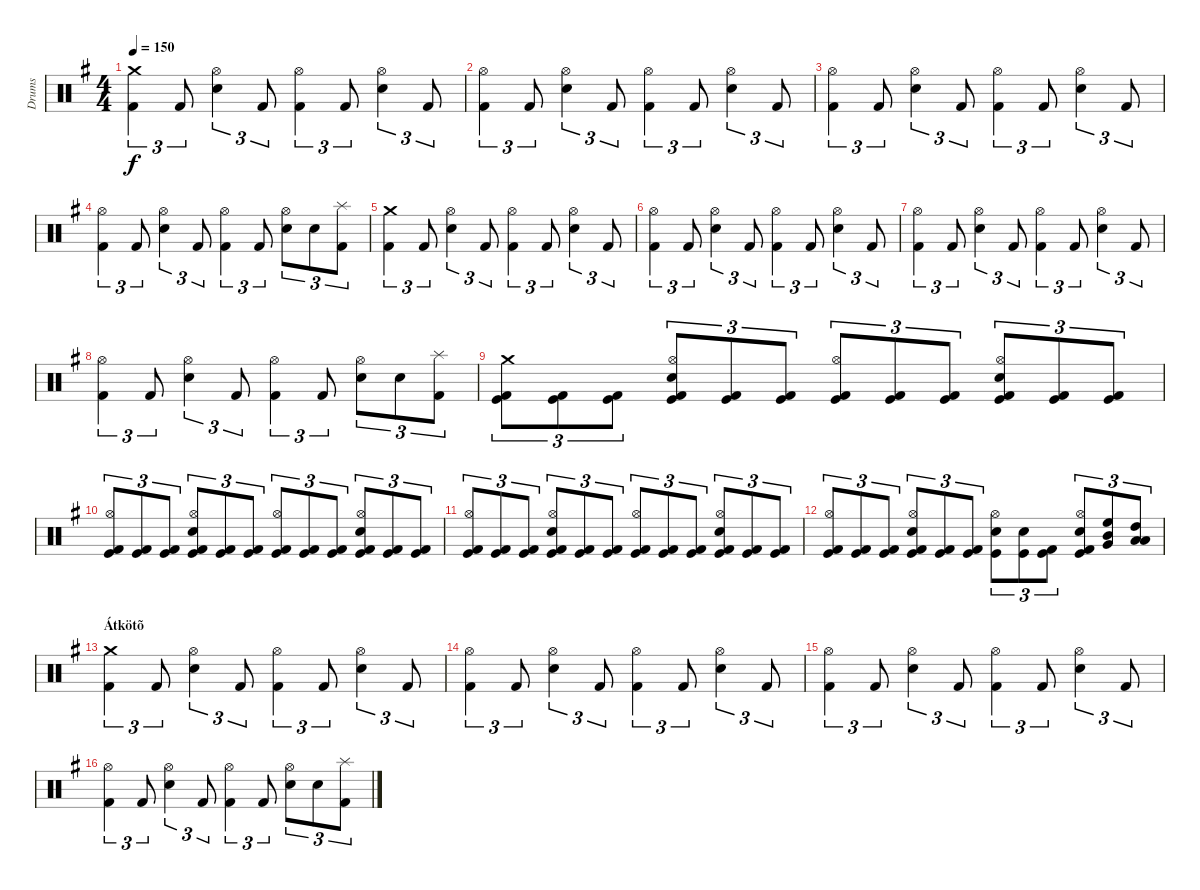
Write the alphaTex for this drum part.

\track ("Drums" "Drums") {instrument percussion}
\staff {score}
\articulation defaults
\ts (4 4)
\tempo 150
\clef neutral
\ks eminor
("Crash medium (hit)" "Kick (hit) 2").4{tu (3 2) dy f} "Kick (hit) 2".8{tu (3 2)} ("Hi-Hat (open)" "Snare (hit) 2").4{tu (3 2)} "Kick (hit) 2".8{tu (3 2)} ("Hi-Hat (open)" "Kick (hit) 2").4{tu (3 2)} "Kick (hit) 2".8{tu (3 2)} ("Hi-Hat (open)" "Snare (hit) 2").4{tu (3 2)} "Kick (hit) 2".8{tu (3 2)} |
("Hi-Hat (open)" "Kick (hit) 2").4{tu (3 2)} "Kick (hit) 2".8{tu (3 2)} ("Hi-Hat (open)" "Snare (hit) 2").4{tu (3 2)} "Kick (hit) 2".8{tu (3 2)} ("Hi-Hat (open)" "Kick (hit) 2").4{tu (3 2)} "Kick (hit) 2".8{tu (3 2)} ("Hi-Hat (open)" "Snare (hit) 2").4{tu (3 2)} "Kick (hit) 2".8{tu (3 2)} |
("Hi-Hat (open)" "Kick (hit) 2").4{tu (3 2)} "Kick (hit) 2".8{tu (3 2)} ("Hi-Hat (open)" "Snare (hit) 2").4{tu (3 2)} "Kick (hit) 2".8{tu (3 2)} ("Hi-Hat (open)" "Kick (hit) 2").4{tu (3 2)} "Kick (hit) 2".8{tu (3 2)} ("Hi-Hat (open)" "Snare (hit) 2").4{tu (3 2)} "Kick (hit) 2".8{tu (3 2)} |
("Hi-Hat (open)" "Kick (hit) 2").4{tu (3 2)} "Kick (hit) 2".8{tu (3 2)} ("Hi-Hat (open)" "Snare (hit) 2").4{tu (3 2)} "Kick (hit) 2".8{tu (3 2)} ("Hi-Hat (open)" "Kick (hit) 2").4{tu (3 2)} "Kick (hit) 2".8{tu (3 2)} ("Hi-Hat (open)" "Snare (hit) 2").8{tu (3 2)} "Snare (hit) 2".8{tu (3 2)} ("Splash (hit)" "Kick (hit) 2").8{tu (3 2)} |
("Crash medium (hit)" "Kick (hit) 2").4{tu (3 2)} "Kick (hit) 2".8{tu (3 2)} ("Hi-Hat (open)" "Snare (hit) 2").4{tu (3 2)} "Kick (hit) 2".8{tu (3 2)} ("Hi-Hat (open)" "Kick (hit) 2").4{tu (3 2)} "Kick (hit) 2".8{tu (3 2)} ("Hi-Hat (open)" "Snare (hit) 2").4{tu (3 2)} "Kick (hit) 2".8{tu (3 2)} |
("Hi-Hat (open)" "Kick (hit) 2").4{tu (3 2)} "Kick (hit) 2".8{tu (3 2)} ("Hi-Hat (open)" "Snare (hit) 2").4{tu (3 2)} "Kick (hit) 2".8{tu (3 2)} ("Hi-Hat (open)" "Kick (hit) 2").4{tu (3 2)} "Kick (hit) 2".8{tu (3 2)} ("Hi-Hat (open)" "Snare (hit) 2").4{tu (3 2)} "Kick (hit) 2".8{tu (3 2)} |
("Hi-Hat (open)" "Kick (hit) 2").4{tu (3 2)} "Kick (hit) 2".8{tu (3 2)} ("Hi-Hat (open)" "Snare (hit) 2").4{tu (3 2)} "Kick (hit) 2".8{tu (3 2)} ("Hi-Hat (open)" "Kick (hit) 2").4{tu (3 2)} "Kick (hit) 2".8{tu (3 2)} ("Hi-Hat (open)" "Snare (hit) 2").4{tu (3 2)} "Kick (hit) 2".8{tu (3 2)} |
("Hi-Hat (open)" "Kick (hit) 2").4{tu (3 2)} "Kick (hit) 2".8{tu (3 2)} ("Hi-Hat (open)" "Snare (hit) 2").4{tu (3 2)} "Kick (hit) 2".8{tu (3 2)} ("Hi-Hat (open)" "Kick (hit) 2").4{tu (3 2)} "Kick (hit) 2".8{tu (3 2)} ("Hi-Hat (open)" "Snare (hit) 2").8{tu (3 2)} "Snare (hit) 2".8{tu (3 2)} ("Splash (hit)" "Kick (hit) 2").8{tu (3 2)} |
("Crash medium (hit)" "Kick (hit)" "Kick (hit) 2").8{tu (3 2)} ("Kick (hit)" "Kick (hit) 2").8{tu (3 2)} ("Kick (hit)" "Kick (hit) 2").8{tu (3 2)} ("Hi-Hat (open)" "Snare (hit) 2" "Kick (hit)" "Kick (hit) 2").8{tu (3 2)} ("Kick (hit)" "Kick (hit) 2").8{tu (3 2)} ("Kick (hit)" "Kick (hit) 2").8{tu (3 2)} ("Hi-Hat (open)" "Kick (hit)" "Kick (hit) 2").8{tu (3 2)} ("Kick (hit)" "Kick (hit) 2").8{tu (3 2)} ("Kick (hit)" "Kick (hit) 2").8{tu (3 2)} ("Hi-Hat (open)" "Snare (hit) 2" "Kick (hit)" "Kick (hit) 2").8{tu (3 2)} ("Kick (hit)" "Kick (hit) 2").8{tu (3 2)} ("Kick (hit)" "Kick (hit) 2").8{tu (3 2)} |
("Hi-Hat (open)" "Kick (hit)" "Kick (hit) 2").8{tu (3 2)} ("Kick (hit)" "Kick (hit) 2").8{tu (3 2)} ("Kick (hit)" "Kick (hit) 2").8{tu (3 2)} ("Hi-Hat (open)" "Snare (hit) 2" "Kick (hit)" "Kick (hit) 2").8{tu (3 2)} ("Kick (hit)" "Kick (hit) 2").8{tu (3 2)} ("Kick (hit)" "Kick (hit) 2").8{tu (3 2)} ("Hi-Hat (open)" "Kick (hit)" "Kick (hit) 2").8{tu (3 2)} ("Kick (hit)" "Kick (hit) 2").8{tu (3 2)} ("Kick (hit)" "Kick (hit) 2").8{tu (3 2)} ("Hi-Hat (open)" "Snare (hit) 2" "Kick (hit)" "Kick (hit) 2").8{tu (3 2)} ("Kick (hit)" "Kick (hit) 2").8{tu (3 2)} ("Kick (hit)" "Kick (hit) 2").8{tu (3 2)} |
("Hi-Hat (open)" "Kick (hit)" "Kick (hit) 2").8{tu (3 2)} ("Kick (hit)" "Kick (hit) 2").8{tu (3 2)} ("Kick (hit)" "Kick (hit) 2").8{tu (3 2)} ("Hi-Hat (open)" "Snare (hit) 2" "Kick (hit)" "Kick (hit) 2").8{tu (3 2)} ("Kick (hit)" "Kick (hit) 2").8{tu (3 2)} ("Kick (hit)" "Kick (hit) 2").8{tu (3 2)} ("Hi-Hat (open)" "Kick (hit)" "Kick (hit) 2").8{tu (3 2)} ("Kick (hit)" "Kick (hit) 2").8{tu (3 2)} ("Kick (hit)" "Kick (hit) 2").8{tu (3 2)} ("Hi-Hat (open)" "Snare (hit) 2" "Kick (hit)" "Kick (hit) 2").8{tu (3 2)} ("Kick (hit)" "Kick (hit) 2").8{tu (3 2)} ("Kick (hit)" "Kick (hit) 2").8{tu (3 2)} |
("Hi-Hat (open)" "Kick (hit)" "Kick (hit) 2").8{tu (3 2)} ("Kick (hit)" "Kick (hit) 2").8{tu (3 2)} ("Kick (hit)" "Kick (hit) 2").8{tu (3 2)} ("Hi-Hat (open)" "Snare (hit) 2" "Kick (hit)" "Kick (hit) 2").8{tu (3 2)} ("Kick (hit)" "Kick (hit) 2").8{tu (3 2)} ("Kick (hit)" "Kick (hit) 2").8{tu (3 2)} ("Hi-Hat (open)" "Snare (hit) 2" "Kick (hit)").8{tu (3 2)} ("Snare (hit) 2" "Kick (hit)").8{tu (3 2)} ("Kick (hit)" "Kick (hit) 2").8{tu (3 2)} ("Hi-Hat (open)" "Snare (hit) 2" "Kick (hit)" "Kick (hit) 2").8{tu (3 2)} ("High Floor Tom (hit)" "Mid Tom (hit)" "Very Low Tom (hit)").8{tu (3 2)} ("High Tom (hit)" "Low Tom (hit)" "Low Floor Tom (hit)").8{tu (3 2)} |
\section ("" "Átkötõ")
("Crash medium (hit)" "Kick (hit) 2").4{tu (3 2)} "Kick (hit) 2".8{tu (3 2)} ("Hi-Hat (open)" "Snare (hit) 2").4{tu (3 2)} "Kick (hit) 2".8{tu (3 2)} ("Hi-Hat (open)" "Kick (hit) 2").4{tu (3 2)} "Kick (hit) 2".8{tu (3 2)} ("Hi-Hat (open)" "Snare (hit) 2").4{tu (3 2)} "Kick (hit) 2".8{tu (3 2)} |
("Hi-Hat (open)" "Kick (hit) 2").4{tu (3 2)} "Kick (hit) 2".8{tu (3 2)} ("Hi-Hat (open)" "Snare (hit) 2").4{tu (3 2)} "Kick (hit) 2".8{tu (3 2)} ("Hi-Hat (open)" "Kick (hit) 2").4{tu (3 2)} "Kick (hit) 2".8{tu (3 2)} ("Hi-Hat (open)" "Snare (hit) 2").4{tu (3 2)} "Kick (hit) 2".8{tu (3 2)} |
("Hi-Hat (open)" "Kick (hit) 2").4{tu (3 2)} "Kick (hit) 2".8{tu (3 2)} ("Hi-Hat (open)" "Snare (hit) 2").4{tu (3 2)} "Kick (hit) 2".8{tu (3 2)} ("Hi-Hat (open)" "Kick (hit) 2").4{tu (3 2)} "Kick (hit) 2".8{tu (3 2)} ("Hi-Hat (open)" "Snare (hit) 2").4{tu (3 2)} "Kick (hit) 2".8{tu (3 2)} |
("Hi-Hat (open)" "Kick (hit) 2").4{tu (3 2)} "Kick (hit) 2".8{tu (3 2)} ("Hi-Hat (open)" "Snare (hit) 2").4{tu (3 2)} "Kick (hit) 2".8{tu (3 2)} ("Hi-Hat (open)" "Kick (hit) 2").4{tu (3 2)} "Kick (hit) 2".8{tu (3 2)} ("Hi-Hat (open)" "Snare (hit) 2").8{tu (3 2)} "Snare (hit) 2".8{tu (3 2)} ("Splash (hit)" "Kick (hit) 2").8{tu (3 2)}
